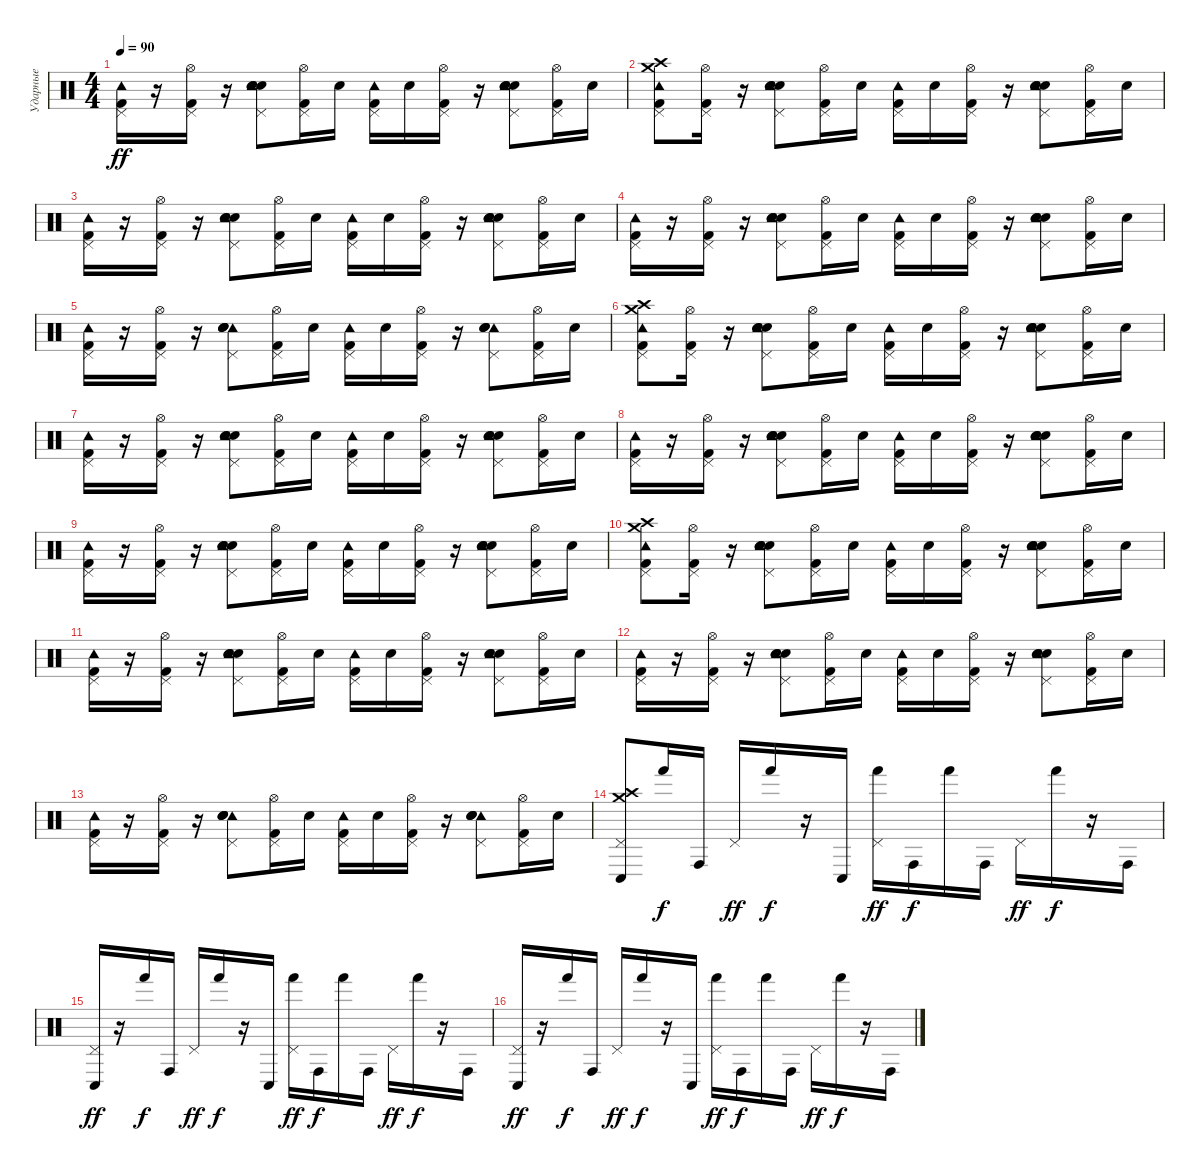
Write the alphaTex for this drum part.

\track ("Ударные" "Ударные") {instrument percussion}
\staff {score}
\articulation defaults
\ts (4 4)
\tempo 90
\clef neutral
\ks c
("Kick (hit) 2" "Tambourine (hit)" "Pedal Hi-Hat (hit)").16{dy ff} r.16 ("Kick (hit) 2" "Hi-Hat (open)" "Pedal Hi-Hat (hit)").16 r.16 ("Electric Snare (hit)" "Hand Clap (hit)" "Snare (hit) 2" "Tambourine (hit)" "Pedal Hi-Hat (hit)").8 ("Kick (hit) 2" "Hi-Hat (open)" "Pedal Hi-Hat (hit)").16 "Snare (hit) 2".16 ("Kick (hit) 2" "Tambourine (hit)" "Pedal Hi-Hat (hit)").16 "Snare (hit) 2".16 ("Kick (hit) 2" "Hi-Hat (open)" "Pedal Hi-Hat (hit)").16 r.16 ("Electric Snare (hit)" "Hand Clap (hit)" "Snare (hit) 2" "Tambourine (hit)" "Pedal Hi-Hat (hit)").8 ("Kick (hit) 2" "Hi-Hat (open)" "Pedal Hi-Hat (hit)").16 "Snare (hit) 2".16 |
("Kick (hit) 2" "Tambourine (hit)" "Crash high (hit)" "Crash medium (hit)" "Pedal Hi-Hat (hit)").8 ("Kick (hit) 2" "Hi-Hat (open)" "Pedal Hi-Hat (hit)").16 r.16 ("Electric Snare (hit)" "Snare (hit) 2" "Hand Clap (hit)" "Tambourine (hit)" "Pedal Hi-Hat (hit)").8 ("Kick (hit) 2" "Hi-Hat (open)" "Pedal Hi-Hat (hit)").16 "Snare (hit) 2".16 ("Kick (hit) 2" "Tambourine (hit)" "Pedal Hi-Hat (hit)").16 "Snare (hit) 2".16 ("Kick (hit) 2" "Hi-Hat (open)" "Pedal Hi-Hat (hit)").16 r.16 ("Electric Snare (hit)" "Snare (hit) 2" "Hand Clap (hit)" "Tambourine (hit)" "Pedal Hi-Hat (hit)").8 ("Kick (hit) 2" "Hi-Hat (open)" "Pedal Hi-Hat (hit)").16 "Snare (hit) 2".16 |
("Kick (hit) 2" "Tambourine (hit)" "Pedal Hi-Hat (hit)").16 r.16 ("Kick (hit) 2" "Hi-Hat (open)" "Pedal Hi-Hat (hit)").16 r.16 ("Electric Snare (hit)" "Hand Clap (hit)" "Snare (hit) 2" "Tambourine (hit)" "Pedal Hi-Hat (hit)").8 ("Kick (hit) 2" "Hi-Hat (open)" "Pedal Hi-Hat (hit)").16 "Snare (hit) 2".16 ("Kick (hit) 2" "Tambourine (hit)" "Pedal Hi-Hat (hit)").16 "Snare (hit) 2".16 ("Kick (hit) 2" "Hi-Hat (open)" "Pedal Hi-Hat (hit)").16 r.16 ("Electric Snare (hit)" "Hand Clap (hit)" "Snare (hit) 2" "Tambourine (hit)" "Pedal Hi-Hat (hit)").8 ("Kick (hit) 2" "Hi-Hat (open)" "Pedal Hi-Hat (hit)").16 "Snare (hit) 2".16 |
("Kick (hit) 2" "Tambourine (hit)" "Pedal Hi-Hat (hit)").16 r.16 ("Kick (hit) 2" "Hi-Hat (open)" "Pedal Hi-Hat (hit)").16 r.16 ("Electric Snare (hit)" "Hand Clap (hit)" "Snare (hit) 2" "Tambourine (hit)" "Pedal Hi-Hat (hit)").8 ("Kick (hit) 2" "Hi-Hat (open)" "Pedal Hi-Hat (hit)").16 "Snare (hit) 2".16 ("Kick (hit) 2" "Tambourine (hit)" "Pedal Hi-Hat (hit)").16 "Snare (hit) 2".16 ("Kick (hit) 2" "Hi-Hat (open)" "Pedal Hi-Hat (hit)").16 r.16 ("Electric Snare (hit)" "Hand Clap (hit)" "Snare (hit) 2" "Tambourine (hit)" "Pedal Hi-Hat (hit)").8 ("Kick (hit) 2" "Hi-Hat (open)" "Pedal Hi-Hat (hit)").16 "Snare (hit) 2".16 |
("Tambourine (hit)" "Pedal Hi-Hat (hit)" "Kick (hit) 2").16 r.16 ("Hi-Hat (open)" "Pedal Hi-Hat (hit)" "Kick (hit) 2").16 r.16 ("Tambourine (hit)" "Pedal Hi-Hat (hit)" "Electric Snare (hit)" "Hand Clap (hit)" "Snare (hit) 2").8 ("Hi-Hat (open)" "Pedal Hi-Hat (hit)" "Kick (hit) 2").16 "Snare (hit) 2".16 ("Tambourine (hit)" "Pedal Hi-Hat (hit)" "Kick (hit) 2").16 "Snare (hit) 2".16 ("Hi-Hat (open)" "Pedal Hi-Hat (hit)" "Kick (hit) 2").16 r.16 ("Tambourine (hit)" "Pedal Hi-Hat (hit)" "Electric Snare (hit)" "Hand Clap (hit)" "Snare (hit) 2").8 ("Hi-Hat (open)" "Pedal Hi-Hat (hit)" "Kick (hit) 2").16 "Snare (hit) 2".16 |
("Kick (hit) 2" "Tambourine (hit)" "Crash high (hit)" "Crash medium (hit)" "Pedal Hi-Hat (hit)").8 ("Kick (hit) 2" "Hi-Hat (open)" "Pedal Hi-Hat (hit)").16 r.16 ("Electric Snare (hit)" "Snare (hit) 2" "Hand Clap (hit)" "Tambourine (hit)" "Pedal Hi-Hat (hit)").8 ("Kick (hit) 2" "Hi-Hat (open)" "Pedal Hi-Hat (hit)").16 "Snare (hit) 2".16 ("Kick (hit) 2" "Tambourine (hit)" "Pedal Hi-Hat (hit)").16 "Snare (hit) 2".16 ("Kick (hit) 2" "Hi-Hat (open)" "Pedal Hi-Hat (hit)").16 r.16 ("Electric Snare (hit)" "Snare (hit) 2" "Hand Clap (hit)" "Tambourine (hit)" "Pedal Hi-Hat (hit)").8 ("Kick (hit) 2" "Hi-Hat (open)" "Pedal Hi-Hat (hit)").16 "Snare (hit) 2".16 |
("Kick (hit) 2" "Tambourine (hit)" "Pedal Hi-Hat (hit)").16 r.16 ("Kick (hit) 2" "Hi-Hat (open)" "Pedal Hi-Hat (hit)").16 r.16 ("Electric Snare (hit)" "Hand Clap (hit)" "Snare (hit) 2" "Tambourine (hit)" "Pedal Hi-Hat (hit)").8 ("Kick (hit) 2" "Hi-Hat (open)" "Pedal Hi-Hat (hit)").16 "Snare (hit) 2".16 ("Kick (hit) 2" "Tambourine (hit)" "Pedal Hi-Hat (hit)").16 "Snare (hit) 2".16 ("Kick (hit) 2" "Hi-Hat (open)" "Pedal Hi-Hat (hit)").16 r.16 ("Electric Snare (hit)" "Hand Clap (hit)" "Snare (hit) 2" "Tambourine (hit)" "Pedal Hi-Hat (hit)").8 ("Kick (hit) 2" "Hi-Hat (open)" "Pedal Hi-Hat (hit)").16 "Snare (hit) 2".16 |
("Kick (hit) 2" "Tambourine (hit)" "Pedal Hi-Hat (hit)").16 r.16 ("Kick (hit) 2" "Hi-Hat (open)" "Pedal Hi-Hat (hit)").16 r.16 ("Electric Snare (hit)" "Hand Clap (hit)" "Snare (hit) 2" "Tambourine (hit)" "Pedal Hi-Hat (hit)").8 ("Kick (hit) 2" "Hi-Hat (open)" "Pedal Hi-Hat (hit)").16 "Snare (hit) 2".16 ("Kick (hit) 2" "Tambourine (hit)" "Pedal Hi-Hat (hit)").16 "Snare (hit) 2".16 ("Kick (hit) 2" "Hi-Hat (open)" "Pedal Hi-Hat (hit)").16 r.16 ("Electric Snare (hit)" "Hand Clap (hit)" "Snare (hit) 2" "Tambourine (hit)" "Pedal Hi-Hat (hit)").8 ("Kick (hit) 2" "Hi-Hat (open)" "Pedal Hi-Hat (hit)").16 "Snare (hit) 2".16 |
("Kick (hit) 2" "Tambourine (hit)" "Pedal Hi-Hat (hit)").16 r.16 ("Kick (hit) 2" "Hi-Hat (open)" "Pedal Hi-Hat (hit)").16 r.16 ("Electric Snare (hit)" "Hand Clap (hit)" "Snare (hit) 2" "Tambourine (hit)" "Pedal Hi-Hat (hit)").8 ("Kick (hit) 2" "Hi-Hat (open)" "Pedal Hi-Hat (hit)").16 "Snare (hit) 2".16 ("Kick (hit) 2" "Tambourine (hit)" "Pedal Hi-Hat (hit)").16 "Snare (hit) 2".16 ("Kick (hit) 2" "Hi-Hat (open)" "Pedal Hi-Hat (hit)").16 r.16 ("Electric Snare (hit)" "Hand Clap (hit)" "Snare (hit) 2" "Tambourine (hit)" "Pedal Hi-Hat (hit)").8 ("Kick (hit) 2" "Hi-Hat (open)" "Pedal Hi-Hat (hit)").16 "Snare (hit) 2".16 |
("Kick (hit) 2" "Tambourine (hit)" "Crash high (hit)" "Crash medium (hit)" "Pedal Hi-Hat (hit)").8 ("Kick (hit) 2" "Hi-Hat (open)" "Pedal Hi-Hat (hit)").16 r.16 ("Electric Snare (hit)" "Snare (hit) 2" "Hand Clap (hit)" "Tambourine (hit)" "Pedal Hi-Hat (hit)").8 ("Kick (hit) 2" "Hi-Hat (open)" "Pedal Hi-Hat (hit)").16 "Snare (hit) 2".16 ("Kick (hit) 2" "Tambourine (hit)" "Pedal Hi-Hat (hit)").16 "Snare (hit) 2".16 ("Kick (hit) 2" "Hi-Hat (open)" "Pedal Hi-Hat (hit)").16 r.16 ("Electric Snare (hit)" "Snare (hit) 2" "Hand Clap (hit)" "Tambourine (hit)" "Pedal Hi-Hat (hit)").8 ("Kick (hit) 2" "Hi-Hat (open)" "Pedal Hi-Hat (hit)").16 "Snare (hit) 2".16 |
("Kick (hit) 2" "Tambourine (hit)" "Pedal Hi-Hat (hit)").16 r.16 ("Kick (hit) 2" "Hi-Hat (open)" "Pedal Hi-Hat (hit)").16 r.16 ("Electric Snare (hit)" "Hand Clap (hit)" "Snare (hit) 2" "Tambourine (hit)" "Pedal Hi-Hat (hit)").8 ("Kick (hit) 2" "Hi-Hat (open)" "Pedal Hi-Hat (hit)").16 "Snare (hit) 2".16 ("Kick (hit) 2" "Tambourine (hit)" "Pedal Hi-Hat (hit)").16 "Snare (hit) 2".16 ("Kick (hit) 2" "Hi-Hat (open)" "Pedal Hi-Hat (hit)").16 r.16 ("Electric Snare (hit)" "Hand Clap (hit)" "Snare (hit) 2" "Tambourine (hit)" "Pedal Hi-Hat (hit)").8 ("Kick (hit) 2" "Hi-Hat (open)" "Pedal Hi-Hat (hit)").16 "Snare (hit) 2".16 |
("Kick (hit) 2" "Tambourine (hit)" "Pedal Hi-Hat (hit)").16 r.16 ("Kick (hit) 2" "Hi-Hat (open)" "Pedal Hi-Hat (hit)").16 r.16 ("Electric Snare (hit)" "Hand Clap (hit)" "Snare (hit) 2" "Tambourine (hit)" "Pedal Hi-Hat (hit)").8 ("Kick (hit) 2" "Hi-Hat (open)" "Pedal Hi-Hat (hit)").16 "Snare (hit) 2".16 ("Kick (hit) 2" "Tambourine (hit)" "Pedal Hi-Hat (hit)").16 "Snare (hit) 2".16 ("Kick (hit) 2" "Hi-Hat (open)" "Pedal Hi-Hat (hit)").16 r.16 ("Electric Snare (hit)" "Hand Clap (hit)" "Snare (hit) 2" "Tambourine (hit)" "Pedal Hi-Hat (hit)").8 ("Kick (hit) 2" "Hi-Hat (open)" "Pedal Hi-Hat (hit)").16 "Snare (hit) 2".16 |
("Tambourine (hit)" "Pedal Hi-Hat (hit)" "Kick (hit) 2").16 r.16 ("Hi-Hat (open)" "Pedal Hi-Hat (hit)" "Kick (hit) 2").16 r.16 ("Tambourine (hit)" "Pedal Hi-Hat (hit)" "Electric Snare (hit)" "Hand Clap (hit)" "Snare (hit) 2").8 ("Hi-Hat (open)" "Pedal Hi-Hat (hit)" "Kick (hit) 2").16 "Snare (hit) 2".16 ("Tambourine (hit)" "Pedal Hi-Hat (hit)" "Kick (hit) 2").16 "Snare (hit) 2".16 ("Hi-Hat (open)" "Pedal Hi-Hat (hit)" "Kick (hit) 2").16 r.16 ("Tambourine (hit)" "Pedal Hi-Hat (hit)" "Electric Snare (hit)" "Hand Clap (hit)" "Snare (hit) 2").8 ("Hi-Hat (open)" "Pedal Hi-Hat (hit)" "Kick (hit) 2").16 "Snare (hit) 2".16 |
("Conga low (hit)" "Crash high (hit)" "Crash medium (hit)" "Pedal Hi-Hat (hit)").8 "Hand (hit)".16{dy f} "Conga high (hit)".16 "Pedal Hi-Hat (hit)".16{dy ff} "Hand (hit)".16{dy f} r.16 "Conga low (hit)".16 ("Hand (hit)" "Pedal Hi-Hat (hit)").16{dy ff} "Conga high (hit)".16{dy f} "Hand (hit)".16 "Conga high (hit)".16 "Pedal Hi-Hat (hit)".16{dy ff} "Hand (hit)".16{dy f} r.16 "Conga high (hit)".16 |
("Conga low (hit)" "Pedal Hi-Hat (hit)").16{dy ff} r.16 "Hand (hit)".16{dy f} "Conga high (hit)".16 "Pedal Hi-Hat (hit)".16{dy ff} "Hand (hit)".16{dy f} r.16 "Conga low (hit)".16 ("Hand (hit)" "Pedal Hi-Hat (hit)").16{dy ff} "Conga high (hit)".16{dy f} "Hand (hit)".16 "Conga high (hit)".16 "Pedal Hi-Hat (hit)".16{dy ff} "Hand (hit)".16{dy f} r.16 "Conga high (hit)".16 |
("Conga low (hit)" "Pedal Hi-Hat (hit)").16{dy ff} r.16 "Hand (hit)".16{dy f} "Conga high (hit)".16 "Pedal Hi-Hat (hit)".16{dy ff} "Hand (hit)".16{dy f} r.16 "Conga low (hit)".16 ("Hand (hit)" "Pedal Hi-Hat (hit)").16{dy ff} "Conga high (hit)".16{dy f} "Hand (hit)".16 "Conga high (hit)".16 "Pedal Hi-Hat (hit)".16{dy ff} "Hand (hit)".16{dy f} r.16 "Conga high (hit)".16
